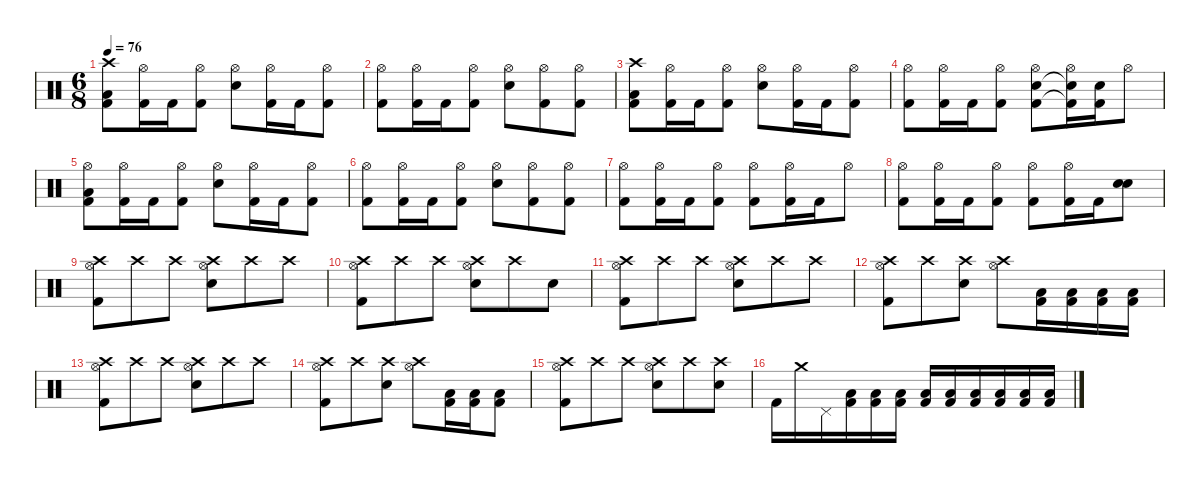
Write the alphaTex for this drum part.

\defaultSystemsLayout 4
\hideDynamics
\bracketExtendMode nobrackets
\singleTrackTrackNamePolicy hidden
\multiTrackTrackNamePolicy hidden
\firstSystemTrackNameMode fullname
\firstSystemTrackNameOrientation horizontal
\otherSystemsTrackNameOrientation horizontal
\track ("Drums" "drm.") {instrument percussion}
\staff {score}
\articulation defaults
\ts (6 8)
\tempo 76
\clef neutral
\ks c
("Crash high (hit)" "Low Floor Tom (hit)" "Kick (hit) 2").8{dy f beam Down} ("Hi-Hat (open)" "Kick (hit) 2").16{dy mf beam Down} "Kick (hit) 2".16{dy f beam Down} ("Hi-Hat (open)" "Kick (hit) 2").8{dy mf beam Down} ("Hi-Hat (open)" "Snare (hit) 2").8{beam Down} ("Hi-Hat (open)" "Kick (hit) 2").16{beam Down} "Kick (hit) 2".16{dy f beam Down} ("Hi-Hat (open)" "Kick (hit) 2").8{dy mf beam Down} |
("Hi-Hat (open)" "Kick (hit) 2").8{beam Down} ("Hi-Hat (open)" "Kick (hit) 2").16{beam Down} "Kick (hit) 2".16{dy f beam Down} ("Hi-Hat (open)" "Kick (hit) 2").8{dy mf beam Down} ("Hi-Hat (open)" "Snare (hit) 2").8{beam Down} ("Hi-Hat (open)" "Kick (hit) 2").8{beam Down} ("Hi-Hat (open)" "Kick (hit) 2").8{beam Down} |
("Crash high (hit)" "Low Floor Tom (hit)" "Kick (hit) 2").8{dy f beam Down} ("Hi-Hat (open)" "Kick (hit) 2").16{dy mf beam Down} "Kick (hit) 2".16{dy f beam Down} ("Hi-Hat (open)" "Kick (hit) 2").8{dy mf beam Down} ("Hi-Hat (open)" "Snare (hit) 2").8{beam Down} ("Hi-Hat (open)" "Kick (hit) 2").16{beam Down} "Kick (hit) 2".16{dy f beam Down} ("Hi-Hat (open)" "Kick (hit) 2").8{dy mf beam Down} |
("Hi-Hat (open)" "Kick (hit) 2").8{beam Down} ("Hi-Hat (open)" "Kick (hit) 2").16{beam Down} "Kick (hit) 2".16{dy f beam Down} ("Hi-Hat (open)" "Kick (hit) 2").8{dy mf beam Down} ("Hi-Hat (open)" "Snare (hit) 2" "Kick (hit) 2").8{beam Down} ("Hi-Hat (open)" "Snare (hit) 2"{t} "Kick (hit) 2"{t}).16{beam Down} ("Snare (hit) 2" "Kick (hit) 2").16{dy fff beam Down} "Hi-Hat (open)".8{dy mf beam Down} |
("Hi-Hat (open)" "Low Floor Tom (hit)" "Kick (hit) 2").8{beam Down} ("Hi-Hat (open)" "Kick (hit) 2").16{beam Down} "Kick (hit) 2".16{dy f beam Down} ("Hi-Hat (open)" "Kick (hit) 2").8{dy mf beam Down} ("Hi-Hat (open)" "Snare (hit) 2").8{beam Down} ("Hi-Hat (open)" "Kick (hit) 2").16{beam Down} "Kick (hit) 2".16{dy f beam Down} ("Hi-Hat (open)" "Kick (hit) 2").8{dy mf beam Down} |
("Hi-Hat (open)" "Kick (hit) 2").8{beam Down} ("Hi-Hat (open)" "Kick (hit) 2").16{beam Down} "Kick (hit) 2".16{dy f beam Down} ("Hi-Hat (open)" "Kick (hit) 2").8{dy mf beam Down} ("Hi-Hat (open)" "Snare (hit) 2").8{beam Down} ("Hi-Hat (open)" "Kick (hit) 2").8{beam Down} ("Hi-Hat (open)" "Kick (hit) 2").8{beam Down} |
("Hi-Hat (open)" "Kick (hit) 2").8{beam Down} ("Hi-Hat (open)" "Kick (hit) 2").16{beam Down} "Kick (hit) 2".16{dy f beam Down} ("Hi-Hat (open)" "Kick (hit) 2").8{dy mf beam Down} ("Hi-Hat (open)" "Kick (hit) 2").8{beam Down} ("Hi-Hat (open)" "Kick (hit) 2").16{beam Down} "Kick (hit) 2".16{dy f beam Down} "Hi-Hat (open)".8{dy mf beam Down} |
("Hi-Hat (open)" "Kick (hit) 2").8{beam Down} ("Hi-Hat (open)" "Kick (hit) 2").16{beam Down} "Kick (hit) 2".16{dy f beam Down} ("Hi-Hat (open)" "Kick (hit) 2").8{dy mf beam Down} ("Hi-Hat (open)" "Kick (hit) 2").8{beam Down} ("Hi-Hat (open)" "Kick (hit) 2").16{beam Down} "Kick (hit) 2".16{dy f beam Down} ("Snare (hit) 2" "Snare (hit) 2").8{beam Down} |
("Crash high (hit)" "Hi-Hat (open)" "Kick (hit) 2").8{beam Down} "Crash high (hit)".8{beam Down} "Crash high (hit)".8{beam Down} ("Crash high (hit)" "Hi-Hat (open)" "Snare (hit) 2").8{beam Down} "Crash high (hit)".8{beam Down} "Crash high (hit)".8{beam Down} |
("Crash high (hit)" "Hi-Hat (open)" "Kick (hit) 2").8{beam Down} "Crash high (hit)".8{beam Down} "Crash high (hit)".8{beam Down} ("Crash high (hit)" "Hi-Hat (open)" "Snare (hit) 2").8{beam Down} "Crash high (hit)".8{beam Down} "Snare (hit) 2".8{dy fff beam Down} |
("Crash high (hit)" "Hi-Hat (open)" "Kick (hit) 2").8{dy f beam Down} "Crash high (hit)".8{beam Down} "Crash high (hit)".8{beam Down} ("Crash high (hit)" "Hi-Hat (open)" "Snare (hit) 2").8{beam Down} "Crash high (hit)".8{beam Down} "Crash high (hit)".8{beam Down} |
("Crash high (hit)" "Hi-Hat (open)" "Kick (hit) 2").8{beam Down} "Crash high (hit)".8{beam Down} ("Crash high (hit)" "Snare (hit) 2").8{beam Down} ("Crash high (hit)" "Hi-Hat (open)").8{beam Down} ("Low Tom (hit)" "Kick (hit) 2").16{dy fff beam Down} ("Low Tom (hit)" "Kick (hit) 2").16{beam Down} ("Low Tom (hit)" "Kick (hit) 2").16{beam Down} ("Low Tom (hit)" "Kick (hit) 2").16{beam Down} |
("Crash high (hit)" "Hi-Hat (open)" "Kick (hit) 2").8{dy f beam Down} "Crash high (hit)".8{beam Down} "Crash high (hit)".8{beam Down} ("Crash high (hit)" "Hi-Hat (open)" "Snare (hit) 2").8{beam Down} "Crash high (hit)".8{beam Down} "Crash high (hit)".8{beam Down} |
("Crash high (hit)" "Hi-Hat (open)" "Kick (hit) 2").8{beam Down} "Crash high (hit)".8{beam Down} ("Crash high (hit)" "Snare (hit) 2").8{beam Down} ("Crash high (hit)" "Hi-Hat (open)").8{beam Down} ("Low Tom (hit)" "Kick (hit) 2").16{dy fff beam Down} ("Low Tom (hit)" "Kick (hit) 2").16{beam Down} ("Low Tom (hit)" "Kick (hit) 2").8{beam Down} |
("Crash high (hit)" "Hi-Hat (open)" "Kick (hit) 2").8{dy f beam Down} "Crash high (hit)".8{beam Down} "Crash high (hit)".8{beam Down} ("Crash high (hit)" "Hi-Hat (open)" "Snare (hit) 2").8{beam Down} "Crash high (hit)".8{beam Down} ("Crash high (hit)" "Snare (hit) 2").8{beam Down} |
"Kick (hit) 2".16{beam Down} "Crash medium (hit)".16{beam Down} "Pedal Hi-Hat (hit)".16{beam Down} ("Low Tom (hit)" "Kick (hit) 2").16{beam Down} ("Low Tom (hit)" "Kick (hit) 2").16{beam Down} ("Low Tom (hit)" "Kick (hit) 2").16{beam Down} ("Low Tom (hit)" "Kick (hit) 2").16{dy ff beam Up} ("Low Tom (hit)" "Kick (hit) 2").16{beam Up} ("Low Tom (hit)" "Kick (hit) 2").16{beam Up} ("Low Tom (hit)" "Kick (hit) 2").16{dy fff beam Up} ("Low Tom (hit)" "Kick (hit) 2").16{beam Up} ("Low Tom (hit)" "Kick (hit) 2").16{beam Up}
